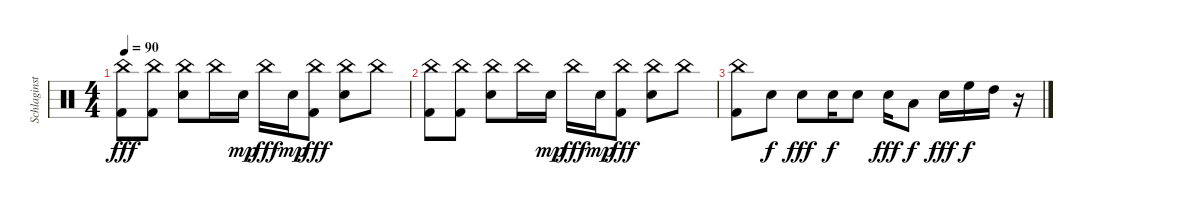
\track ("Schlaginstrumente - Auswahl" "Schlaginst") {instrument percussion}
\staff {score}
\articulation defaults
\ts (4 4)
\tempo 90
\clef neutral
\ks c
("China (hit)" "Kick (hit) 2").8{dy fff} ("China (hit)" "Kick (hit) 2").8 ("China (hit)" "Snare (hit) 2").8 "China (hit)".16 "Snare (hit) 2".16{dy mp} "China (hit)".16{dy fff} "Snare (hit) 2".16{dy mp} ("China (hit)" "Kick (hit) 2").8{dy fff} ("China (hit)" "Snare (hit) 2").8 "China (hit)".8 |
("China (hit)" "Kick (hit) 2").8 ("China (hit)" "Kick (hit) 2").8 ("China (hit)" "Snare (hit) 2").8 "China (hit)".16 "Snare (hit) 2".16{dy mp} "China (hit)".16{dy fff} "Snare (hit) 2".16{dy mp} ("China (hit)" "Kick (hit) 2").8{dy fff} ("China (hit)" "Snare (hit) 2").8 "China (hit)".8 |
("China (hit)" "Kick (hit) 2").8 "Snare (hit) 2".8{dy f} "Snare (hit) 2".8{dy fff} "Snare (hit) 2".16{dy f} "Snare (hit) 2".8 "Snare (hit) 2".16{dy fff} "Low Tom (hit)".8{dy f} "Snare (hit) 2".16{dy fff} "High Floor Tom (hit)".16{dy f} "High Tom (hit)".16 r.16
